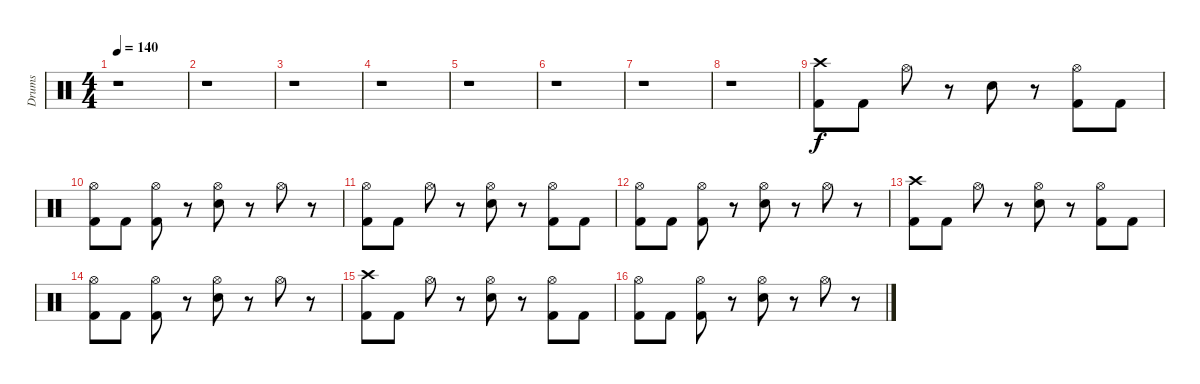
\track ("Drums" "Drums") {instrument percussion}
\staff {score}
\articulation defaults
\ts (4 4)
\tempo 140
\clef neutral
\ks c
r.1{dy f} |
r.1 |
r.1 |
r.1 |
r.1 |
r.1 |
r.1 |
r.1 |
("Crash high (hit)" "Kick (hit) 2").8 "Kick (hit) 2".8 "Hi-Hat (open)".8 r.8 "Electric Snare (hit)".8 r.8 ("Hi-Hat (open)" "Kick (hit) 2").8 "Kick (hit) 2".8 |
("Hi-Hat (open)" "Kick (hit) 2").8 "Kick (hit) 2".8 ("Hi-Hat (open)" "Kick (hit) 2").8 r.8 ("Hi-Hat (open)" "Electric Snare (hit)").8 r.8 "Hi-Hat (open)".8 r.8 |
("Hi-Hat (open)" "Kick (hit) 2").8 "Kick (hit) 2".8 "Hi-Hat (open)".8 r.8 ("Hi-Hat (open)" "Electric Snare (hit)").8 r.8 ("Hi-Hat (open)" "Kick (hit) 2").8 "Kick (hit) 2".8 |
("Hi-Hat (open)" "Kick (hit) 2").8 "Kick (hit) 2".8 ("Hi-Hat (open)" "Kick (hit) 2").8 r.8 ("Hi-Hat (open)" "Electric Snare (hit)").8 r.8 "Hi-Hat (open)".8 r.8 |
("Crash high (hit)" "Kick (hit) 2").8 "Kick (hit) 2".8 "Hi-Hat (open)".8 r.8 ("Hi-Hat (open)" "Electric Snare (hit)").8 r.8 ("Hi-Hat (open)" "Kick (hit) 2").8 "Kick (hit) 2".8 |
("Hi-Hat (open)" "Kick (hit) 2").8 "Kick (hit) 2".8 ("Hi-Hat (open)" "Kick (hit) 2").8 r.8 ("Hi-Hat (open)" "Electric Snare (hit)").8 r.8 "Hi-Hat (open)".8 r.8 |
("Crash high (hit)" "Kick (hit) 2").8 "Kick (hit) 2".8 "Hi-Hat (open)".8 r.8 ("Hi-Hat (open)" "Electric Snare (hit)").8 r.8 ("Hi-Hat (open)" "Kick (hit) 2").8 "Kick (hit) 2".8 |
("Hi-Hat (open)" "Kick (hit) 2").8 "Kick (hit) 2".8 ("Hi-Hat (open)" "Kick (hit) 2").8 r.8 ("Hi-Hat (open)" "Electric Snare (hit)").8 r.8 "Hi-Hat (open)".8 r.8
